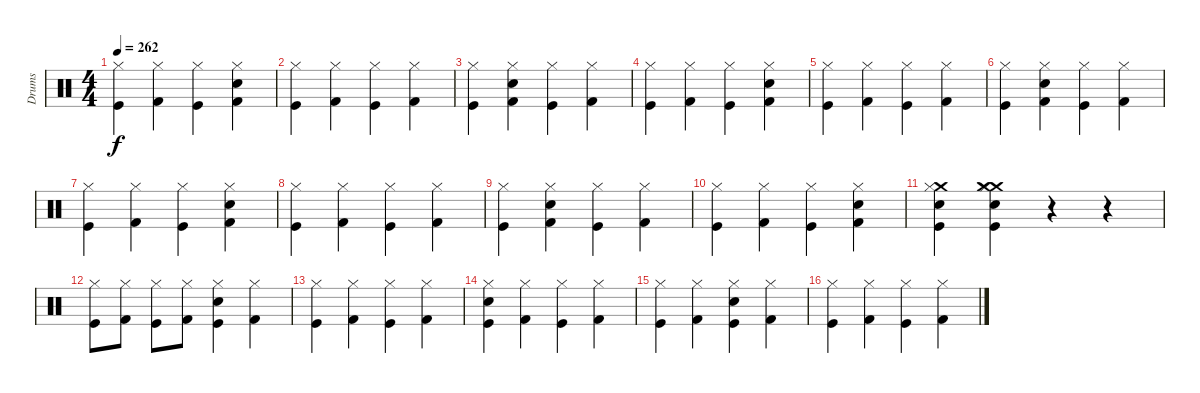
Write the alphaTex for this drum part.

\track ("Drums" "Drums") {instrument percussion}
\staff {score}
\articulation defaults
\ts (4 4)
\tempo 262
\clef neutral
\ks c
("Hi-Hat (closed)" "Kick (hit)").4{dy f} ("Hi-Hat (closed)" "Kick (hit) 2").4 ("Hi-Hat (closed)" "Kick (hit)").4 ("Electric Snare (hit)" "Hi-Hat (closed)" "Kick (hit) 2").4 |
("Hi-Hat (closed)" "Kick (hit)").4 ("Hi-Hat (closed)" "Kick (hit) 2").4 ("Hi-Hat (closed)" "Kick (hit)").4 ("Hi-Hat (closed)" "Kick (hit) 2").4 |
("Hi-Hat (closed)" "Kick (hit)").4 ("Electric Snare (hit)" "Hi-Hat (closed)" "Kick (hit) 2").4 ("Hi-Hat (closed)" "Kick (hit)").4 ("Hi-Hat (closed)" "Kick (hit) 2").4 |
("Hi-Hat (closed)" "Kick (hit)").4 ("Hi-Hat (closed)" "Kick (hit) 2").4 ("Hi-Hat (closed)" "Kick (hit)").4 ("Electric Snare (hit)" "Hi-Hat (closed)" "Kick (hit) 2").4 |
("Hi-Hat (closed)" "Kick (hit)").4 ("Hi-Hat (closed)" "Kick (hit) 2").4 ("Hi-Hat (closed)" "Kick (hit)").4 ("Hi-Hat (closed)" "Kick (hit) 2").4 |
("Hi-Hat (closed)" "Kick (hit)").4 ("Electric Snare (hit)" "Hi-Hat (closed)" "Kick (hit) 2").4 ("Hi-Hat (closed)" "Kick (hit)").4 ("Hi-Hat (closed)" "Kick (hit) 2").4 |
("Hi-Hat (closed)" "Kick (hit)").4 ("Hi-Hat (closed)" "Kick (hit) 2").4 ("Hi-Hat (closed)" "Kick (hit)").4 ("Electric Snare (hit)" "Hi-Hat (closed)" "Kick (hit) 2").4 |
("Hi-Hat (closed)" "Kick (hit)").4 ("Hi-Hat (closed)" "Kick (hit) 2").4 ("Hi-Hat (closed)" "Kick (hit)").4 ("Hi-Hat (closed)" "Kick (hit) 2").4 |
("Hi-Hat (closed)" "Kick (hit)").4 ("Electric Snare (hit)" "Hi-Hat (closed)" "Kick (hit) 2").4 ("Hi-Hat (closed)" "Kick (hit)").4 ("Hi-Hat (closed)" "Kick (hit) 2").4 |
("Hi-Hat (closed)" "Kick (hit)").4 ("Hi-Hat (closed)" "Kick (hit) 2").4 ("Hi-Hat (closed)" "Kick (hit)").4 ("Electric Snare (hit)" "Hi-Hat (closed)" "Kick (hit) 2").4 |
("Crash medium (hit)" "Electric Snare (hit)" "Hi-Hat (closed)" "Kick (hit)").4 ("Crash medium (hit)" "Crash medium (hit)" "Electric Snare (hit)" "Hi-Hat (closed)" "Kick (hit)").4 r.4 r.4 |
("Hi-Hat (closed)" "Kick (hit)").8 ("Hi-Hat (closed)" "Kick (hit) 2").8 ("Hi-Hat (closed)" "Kick (hit)").8 ("Hi-Hat (closed)" "Kick (hit) 2").8 ("Electric Snare (hit)" "Hi-Hat (closed)" "Kick (hit)").4 ("Hi-Hat (closed)" "Kick (hit) 2").4 |
("Hi-Hat (closed)" "Kick (hit)").4 ("Hi-Hat (closed)" "Kick (hit) 2").4 ("Hi-Hat (closed)" "Kick (hit)").4 ("Hi-Hat (closed)" "Kick (hit) 2").4 |
("Electric Snare (hit)" "Hi-Hat (closed)" "Kick (hit)").4 ("Hi-Hat (closed)" "Kick (hit) 2").4 ("Hi-Hat (closed)" "Kick (hit)").4 ("Hi-Hat (closed)" "Kick (hit) 2").4 |
("Hi-Hat (closed)" "Kick (hit)").4 ("Hi-Hat (closed)" "Kick (hit) 2").4 ("Electric Snare (hit)" "Hi-Hat (closed)" "Kick (hit)").4 ("Hi-Hat (closed)" "Kick (hit) 2").4 |
("Hi-Hat (closed)" "Kick (hit)").4 ("Hi-Hat (closed)" "Kick (hit) 2").4 ("Hi-Hat (closed)" "Kick (hit)").4 ("Hi-Hat (closed)" "Kick (hit) 2").4
